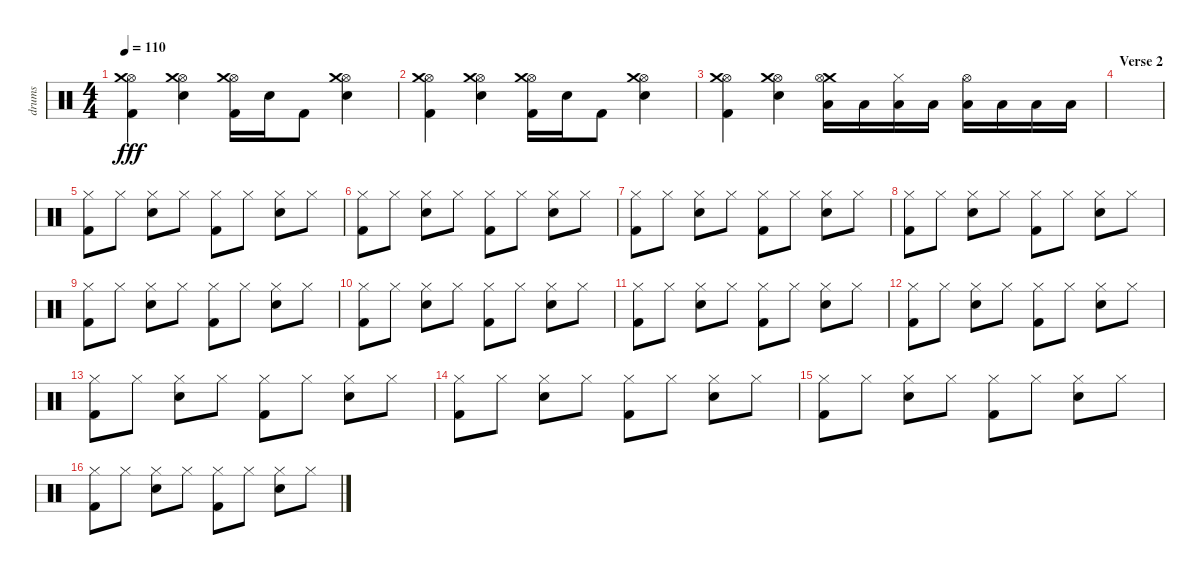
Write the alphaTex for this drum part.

\track ("drums" "drums") {instrument percussion}
\staff {score}
\articulation defaults
\ts (4 4)
\tempo 110
\clef neutral
\ks c
("Kick (hit) 2" "Hi-Hat (open)" "Crash medium (hit)").4{dy fff} ("Electric Snare (hit)" "Hi-Hat (open)" "Crash medium (hit)").4 ("Kick (hit) 2" "Hi-Hat (open)" "Crash medium (hit)").16 "Electric Snare (hit)".16 "Kick (hit) 2".8 ("Electric Snare (hit)" "Hi-Hat (open)" "Crash medium (hit)").4 |
("Kick (hit) 2" "Hi-Hat (open)" "Crash medium (hit)").4 ("Electric Snare (hit)" "Hi-Hat (open)" "Crash medium (hit)").4 ("Kick (hit) 2" "Hi-Hat (open)" "Crash medium (hit)").16 "Electric Snare (hit)".16 "Kick (hit) 2".8 ("Electric Snare (hit)" "Hi-Hat (open)" "Crash medium (hit)").4 |
("Kick (hit) 2" "Hi-Hat (open)" "Crash medium (hit)").4 ("Electric Snare (hit)" "Hi-Hat (open)" "Crash medium (hit)").4 ("Crash medium (hit)" "Hi-Hat (open)" "Low Tom (hit)").16 "Low Tom (hit)".16 ("Hi-Hat (closed)" "Low Tom (hit)").16 "Low Tom (hit)".16 ("Hi-Hat (open)" "Low Floor Tom (hit)").16 "Low Floor Tom (hit)".16 "Low Floor Tom (hit)".16 "Low Floor Tom (hit)".16 |
\section ("" "Verse 2")
|
("Kick (hit) 2" "Hi-Hat (closed)").8 "Hi-Hat (closed)".8 ("Electric Snare (hit)" "Hi-Hat (closed)").8 "Hi-Hat (closed)".8 ("Kick (hit) 2" "Hi-Hat (closed)").8 "Hi-Hat (closed)".8 ("Electric Snare (hit)" "Hi-Hat (closed)").8 "Hi-Hat (closed)".8 |
("Kick (hit) 2" "Hi-Hat (closed)").8 "Hi-Hat (closed)".8 ("Electric Snare (hit)" "Hi-Hat (closed)").8 "Hi-Hat (closed)".8 ("Kick (hit) 2" "Hi-Hat (closed)").8 "Hi-Hat (closed)".8 ("Electric Snare (hit)" "Hi-Hat (closed)").8 "Hi-Hat (closed)".8 |
("Kick (hit) 2" "Hi-Hat (closed)").8 "Hi-Hat (closed)".8 ("Electric Snare (hit)" "Hi-Hat (closed)").8 "Hi-Hat (closed)".8 ("Kick (hit) 2" "Hi-Hat (closed)").8 "Hi-Hat (closed)".8 ("Electric Snare (hit)" "Hi-Hat (closed)").8 "Hi-Hat (closed)".8 |
("Kick (hit) 2" "Hi-Hat (closed)").8 "Hi-Hat (closed)".8 ("Electric Snare (hit)" "Hi-Hat (closed)").8 "Hi-Hat (closed)".8 ("Kick (hit) 2" "Hi-Hat (closed)").8 "Hi-Hat (closed)".8 ("Electric Snare (hit)" "Hi-Hat (closed)").8 "Hi-Hat (closed)".8 |
("Kick (hit) 2" "Hi-Hat (closed)").8 "Hi-Hat (closed)".8 ("Electric Snare (hit)" "Hi-Hat (closed)").8 "Hi-Hat (closed)".8 ("Kick (hit) 2" "Hi-Hat (closed)").8 "Hi-Hat (closed)".8 ("Electric Snare (hit)" "Hi-Hat (closed)").8 "Hi-Hat (closed)".8 |
("Kick (hit) 2" "Hi-Hat (closed)").8 "Hi-Hat (closed)".8 ("Electric Snare (hit)" "Hi-Hat (closed)").8 "Hi-Hat (closed)".8 ("Kick (hit) 2" "Hi-Hat (closed)").8 "Hi-Hat (closed)".8 ("Electric Snare (hit)" "Hi-Hat (closed)").8 "Hi-Hat (closed)".8 |
("Kick (hit) 2" "Hi-Hat (closed)").8 "Hi-Hat (closed)".8 ("Electric Snare (hit)" "Hi-Hat (closed)").8 "Hi-Hat (closed)".8 ("Kick (hit) 2" "Hi-Hat (closed)").8 "Hi-Hat (closed)".8 ("Electric Snare (hit)" "Hi-Hat (closed)").8 "Hi-Hat (closed)".8 |
("Kick (hit) 2" "Hi-Hat (closed)").8 "Hi-Hat (closed)".8 ("Electric Snare (hit)" "Hi-Hat (closed)").8 "Hi-Hat (closed)".8 ("Kick (hit) 2" "Hi-Hat (closed)").8 "Hi-Hat (closed)".8 ("Electric Snare (hit)" "Hi-Hat (closed)").8 "Hi-Hat (closed)".8 |
("Kick (hit) 2" "Hi-Hat (closed)").8 "Hi-Hat (closed)".8 ("Electric Snare (hit)" "Hi-Hat (closed)").8 "Hi-Hat (closed)".8 ("Kick (hit) 2" "Hi-Hat (closed)").8 "Hi-Hat (closed)".8 ("Electric Snare (hit)" "Hi-Hat (closed)").8 "Hi-Hat (closed)".8 |
("Kick (hit) 2" "Hi-Hat (closed)").8 "Hi-Hat (closed)".8 ("Electric Snare (hit)" "Hi-Hat (closed)").8 "Hi-Hat (closed)".8 ("Kick (hit) 2" "Hi-Hat (closed)").8 "Hi-Hat (closed)".8 ("Electric Snare (hit)" "Hi-Hat (closed)").8 "Hi-Hat (closed)".8 |
("Kick (hit) 2" "Hi-Hat (closed)").8 "Hi-Hat (closed)".8 ("Electric Snare (hit)" "Hi-Hat (closed)").8 "Hi-Hat (closed)".8 ("Kick (hit) 2" "Hi-Hat (closed)").8 "Hi-Hat (closed)".8 ("Electric Snare (hit)" "Hi-Hat (closed)").8 "Hi-Hat (closed)".8 |
("Kick (hit) 2" "Hi-Hat (closed)").8 "Hi-Hat (closed)".8 ("Electric Snare (hit)" "Hi-Hat (closed)").8 "Hi-Hat (closed)".8 ("Kick (hit) 2" "Hi-Hat (closed)").8 "Hi-Hat (closed)".8 ("Electric Snare (hit)" "Hi-Hat (closed)").8 "Hi-Hat (closed)".8
